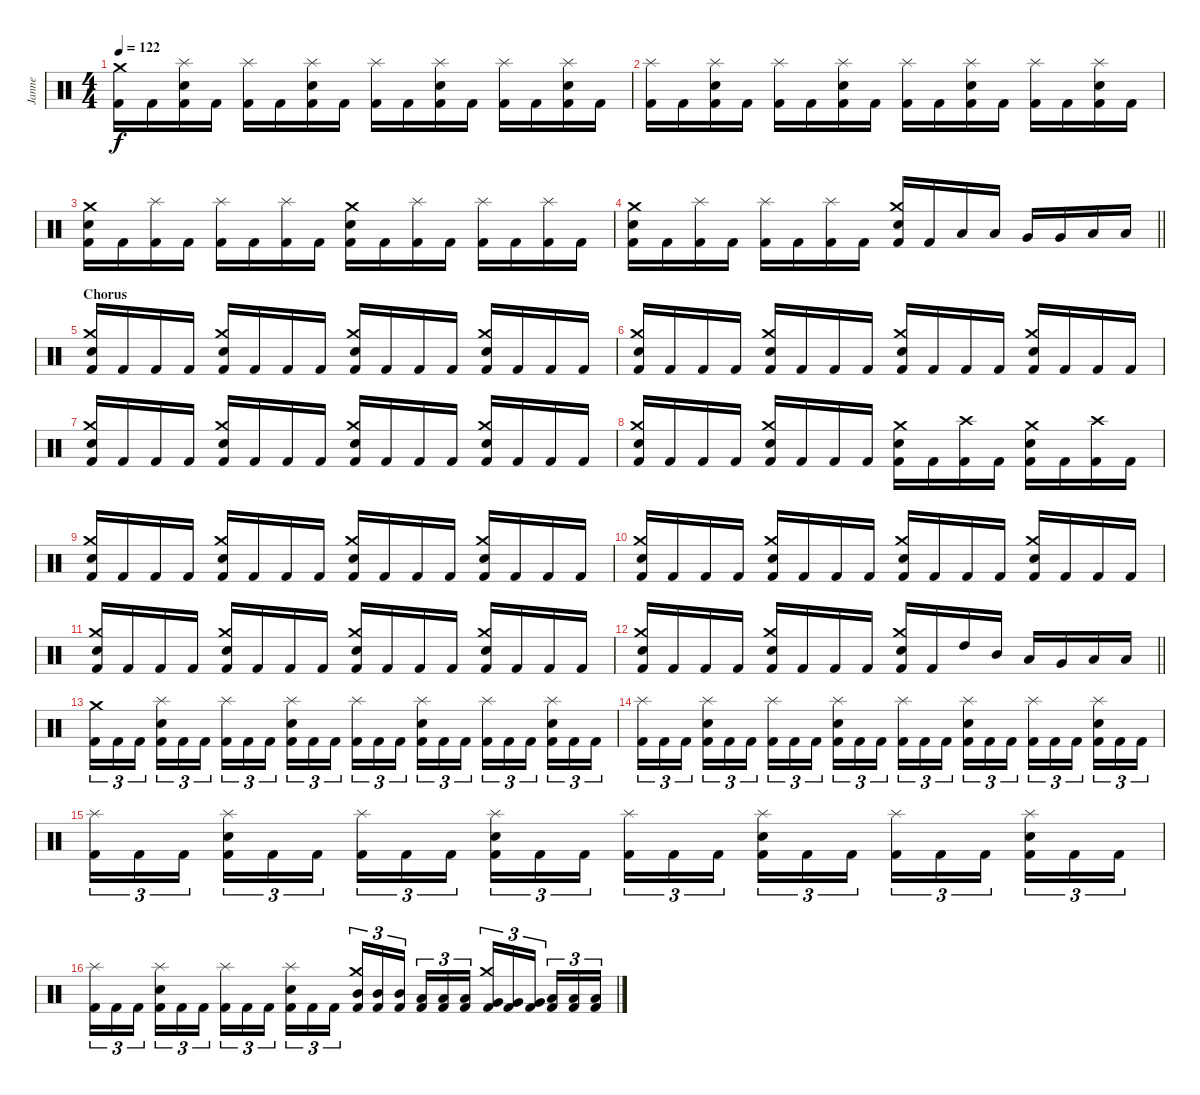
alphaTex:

\track ("Janne" "Janne") {instrument percussion}
\staff {score}
\articulation defaults
\ts (4 4)
\tempo 122
\clef neutral
\ks c
("Kick (hit) 2" "Crash medium (hit)").16{dy f} "Kick (hit) 2".16 ("Kick (hit) 2" "Snare (hit) 2" "Splash (hit)").16 "Kick (hit) 2".16 ("Kick (hit) 2" "Splash (hit)").16 "Kick (hit) 2".16 ("Kick (hit) 2" "Snare (hit) 2" "Splash (hit)").16 "Kick (hit) 2".16 ("Kick (hit) 2" "Splash (hit)").16 "Kick (hit) 2".16 ("Kick (hit) 2" "Snare (hit) 2" "Splash (hit)").16 "Kick (hit) 2".16 ("Kick (hit) 2" "Splash (hit)").16 "Kick (hit) 2".16 ("Kick (hit) 2" "Snare (hit) 2" "Splash (hit)").16 "Kick (hit) 2".16 |
("Kick (hit) 2" "Splash (hit)").16 "Kick (hit) 2".16 ("Kick (hit) 2" "Snare (hit) 2" "Splash (hit)").16 "Kick (hit) 2".16 ("Kick (hit) 2" "Splash (hit)").16 "Kick (hit) 2".16 ("Kick (hit) 2" "Snare (hit) 2" "Splash (hit)").16 "Kick (hit) 2".16 ("Kick (hit) 2" "Splash (hit)").16 "Kick (hit) 2".16 ("Kick (hit) 2" "Snare (hit) 2" "Splash (hit)").16 "Kick (hit) 2".16 ("Kick (hit) 2" "Splash (hit)").16 "Kick (hit) 2".16 ("Kick (hit) 2" "Snare (hit) 2" "Splash (hit)").16 "Kick (hit) 2".16 |
("Kick (hit) 2" "Snare (hit) 2" "Crash medium (hit)").16 "Kick (hit) 2".16 ("Kick (hit) 2" "Splash (hit)").16 "Kick (hit) 2".16 ("Kick (hit) 2" "Splash (hit)").16 "Kick (hit) 2".16 ("Kick (hit) 2" "Splash (hit)").16 "Kick (hit) 2".16 ("Kick (hit) 2" "Snare (hit) 2" "Crash medium (hit)").16 "Kick (hit) 2".16 ("Kick (hit) 2" "Splash (hit)").16 "Kick (hit) 2".16 ("Kick (hit) 2" "Splash (hit)").16 "Kick (hit) 2".16 ("Kick (hit) 2" "Splash (hit)").16 "Kick (hit) 2".16 |
\barLineRight lightlight
("Kick (hit) 2" "Snare (hit) 2" "Crash medium (hit)").16 "Kick (hit) 2".16 ("Kick (hit) 2" "Splash (hit)").16 "Kick (hit) 2".16 ("Kick (hit) 2" "Splash (hit)").16 "Kick (hit) 2".16 ("Kick (hit) 2" "Splash (hit)").16 "Kick (hit) 2".16 ("Kick (hit) 2" "Snare (hit) 2" "Crash medium (hit)").16 "Kick (hit) 2".16 "Low Tom (hit)".16 "Low Tom (hit)".16 "Very Low Tom (hit)".16 "Very Low Tom (hit)".16 "Low Floor Tom (hit)".16 "Low Floor Tom (hit)".16 |
\section ("" "Chorus")
("Kick (hit) 2" "Snare (hit) 2" "Crash medium (hit)").16 "Kick (hit) 2".16 "Kick (hit) 2".16 "Kick (hit) 2".16 ("Kick (hit) 2" "Snare (hit) 2" "Crash medium (hit)").16 "Kick (hit) 2".16 "Kick (hit) 2".16 "Kick (hit) 2".16 ("Kick (hit) 2" "Snare (hit) 2" "Crash medium (hit)").16 "Kick (hit) 2".16 "Kick (hit) 2".16 "Kick (hit) 2".16 ("Kick (hit) 2" "Snare (hit) 2" "Crash medium (hit)").16 "Kick (hit) 2".16 "Kick (hit) 2".16 "Kick (hit) 2".16 |
("Kick (hit) 2" "Snare (hit) 2" "Crash medium (hit)").16 "Kick (hit) 2".16 "Kick (hit) 2".16 "Kick (hit) 2".16 ("Kick (hit) 2" "Snare (hit) 2" "Crash medium (hit)").16 "Kick (hit) 2".16 "Kick (hit) 2".16 "Kick (hit) 2".16 ("Kick (hit) 2" "Snare (hit) 2" "Crash medium (hit)").16 "Kick (hit) 2".16 "Kick (hit) 2".16 "Kick (hit) 2".16 ("Kick (hit) 2" "Snare (hit) 2" "Crash medium (hit)").16 "Kick (hit) 2".16 "Kick (hit) 2".16 "Kick (hit) 2".16 |
("Kick (hit) 2" "Snare (hit) 2" "Crash medium (hit)").16 "Kick (hit) 2".16 "Kick (hit) 2".16 "Kick (hit) 2".16 ("Kick (hit) 2" "Snare (hit) 2" "Crash medium (hit)").16 "Kick (hit) 2".16 "Kick (hit) 2".16 "Kick (hit) 2".16 ("Kick (hit) 2" "Snare (hit) 2" "Crash medium (hit)").16 "Kick (hit) 2".16 "Kick (hit) 2".16 "Kick (hit) 2".16 ("Kick (hit) 2" "Snare (hit) 2" "Crash medium (hit)").16 "Kick (hit) 2".16 "Kick (hit) 2".16 "Kick (hit) 2".16 |
("Kick (hit) 2" "Snare (hit) 2" "Crash medium (hit)").16 "Kick (hit) 2".16 "Kick (hit) 2".16 "Kick (hit) 2".16 ("Kick (hit) 2" "Snare (hit) 2" "Crash medium (hit)").16 "Kick (hit) 2".16 "Kick (hit) 2".16 "Kick (hit) 2".16 ("Kick (hit) 2" "Snare (hit) 2" "Crash medium (hit)").16 "Kick (hit) 2".16 ("Kick (hit) 2" "Crash high (hit)").16 "Kick (hit) 2".16 ("Kick (hit) 2" "Snare (hit) 2" "Crash medium (hit)").16 "Kick (hit) 2".16 ("Kick (hit) 2" "Crash high (hit)").16 "Kick (hit) 2".16 |
("Kick (hit) 2" "Snare (hit) 2" "Crash medium (hit)").16 "Kick (hit) 2".16 "Kick (hit) 2".16 "Kick (hit) 2".16 ("Kick (hit) 2" "Snare (hit) 2" "Crash medium (hit)").16 "Kick (hit) 2".16 "Kick (hit) 2".16 "Kick (hit) 2".16 ("Kick (hit) 2" "Snare (hit) 2" "Crash medium (hit)").16 "Kick (hit) 2".16 "Kick (hit) 2".16 "Kick (hit) 2".16 ("Kick (hit) 2" "Snare (hit) 2" "Crash medium (hit)").16 "Kick (hit) 2".16 "Kick (hit) 2".16 "Kick (hit) 2".16 |
("Kick (hit) 2" "Snare (hit) 2" "Crash medium (hit)").16 "Kick (hit) 2".16 "Kick (hit) 2".16 "Kick (hit) 2".16 ("Kick (hit) 2" "Snare (hit) 2" "Crash medium (hit)").16 "Kick (hit) 2".16 "Kick (hit) 2".16 "Kick (hit) 2".16 ("Kick (hit) 2" "Snare (hit) 2" "Crash medium (hit)").16 "Kick (hit) 2".16 "Kick (hit) 2".16 "Kick (hit) 2".16 ("Kick (hit) 2" "Snare (hit) 2" "Crash medium (hit)").16 "Kick (hit) 2".16 "Kick (hit) 2".16 "Kick (hit) 2".16 |
("Kick (hit) 2" "Snare (hit) 2" "Crash medium (hit)").16 "Kick (hit) 2".16 "Kick (hit) 2".16 "Kick (hit) 2".16 ("Kick (hit) 2" "Snare (hit) 2" "Crash medium (hit)").16 "Kick (hit) 2".16 "Kick (hit) 2".16 "Kick (hit) 2".16 ("Kick (hit) 2" "Snare (hit) 2" "Crash medium (hit)").16 "Kick (hit) 2".16 "Kick (hit) 2".16 "Kick (hit) 2".16 ("Kick (hit) 2" "Snare (hit) 2" "Crash medium (hit)").16 "Kick (hit) 2".16 "Kick (hit) 2".16 "Kick (hit) 2".16 |
\barLineRight lightlight
("Kick (hit) 2" "Snare (hit) 2" "Crash medium (hit)").16 "Kick (hit) 2".16 "Kick (hit) 2".16 "Kick (hit) 2".16 ("Kick (hit) 2" "Snare (hit) 2" "Crash medium (hit)").16 "Kick (hit) 2".16 "Kick (hit) 2".16 "Kick (hit) 2".16 ("Kick (hit) 2" "Snare (hit) 2" "Crash medium (hit)").16 "Kick (hit) 2".16 "High Tom (hit)".16 "Mid Tom (hit)".16 "Low Tom (hit)".16 "Very Low Tom (hit)".16 "Low Floor Tom (hit)".16 "Low Floor Tom (hit)".16 |
\section ("" "")
("Kick (hit) 2" "Crash medium (hit)").16{tu (3 2)} "Kick (hit) 2".16{tu (3 2)} "Kick (hit) 2".16{tu (3 2) beam splitsecondary} ("Kick (hit) 2" "Snare (hit) 2" "Splash (hit)").16{tu (3 2)} "Kick (hit) 2".16{tu (3 2)} "Kick (hit) 2".16{tu (3 2)} ("Kick (hit) 2" "Splash (hit)").16{tu (3 2)} "Kick (hit) 2".16{tu (3 2)} "Kick (hit) 2".16{tu (3 2) beam splitsecondary} ("Kick (hit) 2" "Snare (hit) 2" "Splash (hit)").16{tu (3 2)} "Kick (hit) 2".16{tu (3 2)} "Kick (hit) 2".16{tu (3 2)} ("Kick (hit) 2" "Splash (hit)").16{tu (3 2)} "Kick (hit) 2".16{tu (3 2)} "Kick (hit) 2".16{tu (3 2) beam splitsecondary} ("Kick (hit) 2" "Snare (hit) 2" "Splash (hit)").16{tu (3 2)} "Kick (hit) 2".16{tu (3 2)} "Kick (hit) 2".16{tu (3 2)} ("Kick (hit) 2" "Splash (hit)").16{tu (3 2)} "Kick (hit) 2".16{tu (3 2)} "Kick (hit) 2".16{tu (3 2) beam splitsecondary} ("Kick (hit) 2" "Snare (hit) 2" "Splash (hit)").16{tu (3 2)} "Kick (hit) 2".16{tu (3 2)} "Kick (hit) 2".16{tu (3 2)} |
("Kick (hit) 2" "Splash (hit)").16{tu (3 2)} "Kick (hit) 2".16{tu (3 2)} "Kick (hit) 2".16{tu (3 2) beam splitsecondary} ("Kick (hit) 2" "Snare (hit) 2" "Splash (hit)").16{tu (3 2)} "Kick (hit) 2".16{tu (3 2)} "Kick (hit) 2".16{tu (3 2)} ("Kick (hit) 2" "Splash (hit)").16{tu (3 2)} "Kick (hit) 2".16{tu (3 2)} "Kick (hit) 2".16{tu (3 2) beam splitsecondary} ("Kick (hit) 2" "Snare (hit) 2" "Splash (hit)").16{tu (3 2)} "Kick (hit) 2".16{tu (3 2)} "Kick (hit) 2".16{tu (3 2)} ("Kick (hit) 2" "Splash (hit)").16{tu (3 2)} "Kick (hit) 2".16{tu (3 2)} "Kick (hit) 2".16{tu (3 2) beam splitsecondary} ("Kick (hit) 2" "Snare (hit) 2" "Splash (hit)").16{tu (3 2)} "Kick (hit) 2".16{tu (3 2)} "Kick (hit) 2".16{tu (3 2)} ("Kick (hit) 2" "Splash (hit)").16{tu (3 2)} "Kick (hit) 2".16{tu (3 2)} "Kick (hit) 2".16{tu (3 2) beam splitsecondary} ("Kick (hit) 2" "Snare (hit) 2" "Splash (hit)").16{tu (3 2)} "Kick (hit) 2".16{tu (3 2)} "Kick (hit) 2".16{tu (3 2)} |
("Kick (hit) 2" "Splash (hit)").16{tu (3 2)} "Kick (hit) 2".16{tu (3 2)} "Kick (hit) 2".16{tu (3 2) beam splitsecondary} ("Kick (hit) 2" "Snare (hit) 2" "Splash (hit)").16{tu (3 2)} "Kick (hit) 2".16{tu (3 2)} "Kick (hit) 2".16{tu (3 2)} ("Kick (hit) 2" "Splash (hit)").16{tu (3 2)} "Kick (hit) 2".16{tu (3 2)} "Kick (hit) 2".16{tu (3 2) beam splitsecondary} ("Kick (hit) 2" "Snare (hit) 2" "Splash (hit)").16{tu (3 2)} "Kick (hit) 2".16{tu (3 2)} "Kick (hit) 2".16{tu (3 2)} ("Kick (hit) 2" "Splash (hit)").16{tu (3 2)} "Kick (hit) 2".16{tu (3 2)} "Kick (hit) 2".16{tu (3 2) beam splitsecondary} ("Kick (hit) 2" "Snare (hit) 2" "Splash (hit)").16{tu (3 2)} "Kick (hit) 2".16{tu (3 2)} "Kick (hit) 2".16{tu (3 2)} ("Kick (hit) 2" "Splash (hit)").16{tu (3 2)} "Kick (hit) 2".16{tu (3 2)} "Kick (hit) 2".16{tu (3 2) beam splitsecondary} ("Kick (hit) 2" "Snare (hit) 2" "Splash (hit)").16{tu (3 2)} "Kick (hit) 2".16{tu (3 2)} "Kick (hit) 2".16{tu (3 2)} |
("Kick (hit) 2" "Splash (hit)").16{tu (3 2)} "Kick (hit) 2".16{tu (3 2)} "Kick (hit) 2".16{tu (3 2) beam splitsecondary} ("Kick (hit) 2" "Snare (hit) 2" "Splash (hit)").16{tu (3 2)} "Kick (hit) 2".16{tu (3 2)} "Kick (hit) 2".16{tu (3 2)} ("Kick (hit) 2" "Splash (hit)").16{tu (3 2)} "Kick (hit) 2".16{tu (3 2)} "Kick (hit) 2".16{tu (3 2) beam splitsecondary} ("Kick (hit) 2" "Snare (hit) 2" "Splash (hit)").16{tu (3 2)} "Kick (hit) 2".16{tu (3 2)} "Kick (hit) 2".16{tu (3 2)} ("Kick (hit) 2" "Mid Tom (hit)" "Crash medium (hit)").16{tu (3 2)} ("Kick (hit) 2" "Mid Tom (hit)").16{tu (3 2)} ("Kick (hit) 2" "Mid Tom (hit)").16{tu (3 2) beam splitsecondary} ("Kick (hit) 2" "Low Tom (hit)").16{tu (3 2)} ("Kick (hit) 2" "Low Tom (hit)").16{tu (3 2)} ("Kick (hit) 2" "Low Tom (hit)").16{tu (3 2)} ("Kick (hit) 2" "Very Low Tom (hit)" "Crash medium (hit)").16{tu (3 2)} ("Kick (hit) 2" "Very Low Tom (hit)").16{tu (3 2)} ("Kick (hit) 2" "Very Low Tom (hit)").16{tu (3 2) beam splitsecondary} ("Kick (hit) 2" "Low Floor Tom (hit)").16{tu (3 2)} ("Kick (hit) 2" "Low Floor Tom (hit)").16{tu (3 2)} ("Kick (hit) 2" "Low Floor Tom (hit)").16{tu (3 2)}
